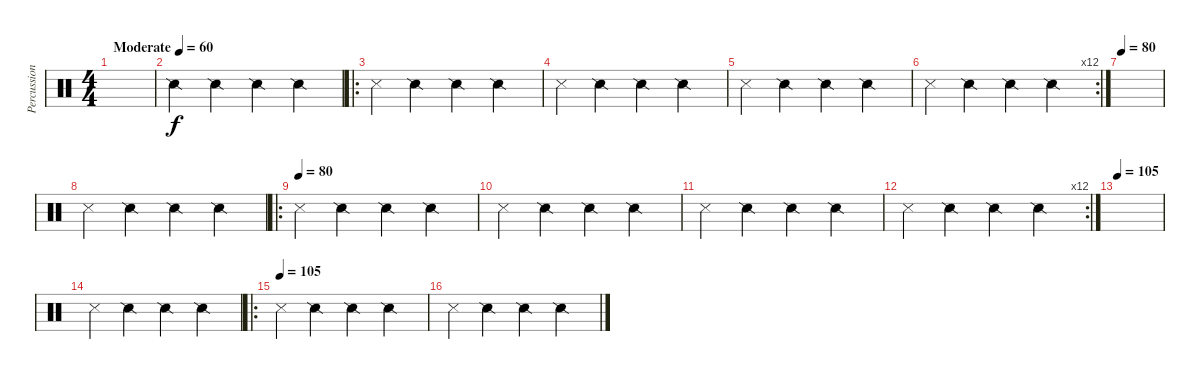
\track ("Percussion" "Percussion") {instrument percussion}
\staff {score}
\articulation defaults
\ts (4 4)
\tempo (60 "Moderate")
\clef neutral
\ks c
|
"Snare (side stick) 2".4 "Snare (side stick) 2".4 "Snare (side stick) 2".4 "Snare (side stick) 2".4 |
\ro "Metronome (hit)".4 "Snare (side stick) 2".4 "Snare (side stick) 2".4 "Snare (side stick) 2".4
|
"Metronome (hit)".4 "Snare (side stick) 2".4 "Snare (side stick) 2".4 "Snare (side stick) 2".4 |
"Metronome (hit)".4 "Snare (side stick) 2".4 "Snare (side stick) 2".4 "Snare (side stick) 2".4 |
\rc 12 "Metronome (hit)".4 "Snare (side stick) 2".4 "Snare (side stick) 2".4 "Snare (side stick) 2".4
|
\tempo 80
|
"Metronome (hit)".4 "Snare (side stick) 2".4 "Snare (side stick) 2".4 "Snare (side stick) 2".4 |
\ro
\tempo (80)
"Metronome (hit)".4 "Snare (side stick) 2".4 "Snare (side stick) 2".4 "Snare (side stick) 2".4 |
"Metronome (hit)".4 "Snare (side stick) 2".4 "Snare (side stick) 2".4 "Snare (side stick) 2".4 |
"Metronome (hit)".4 "Snare (side stick) 2".4 "Snare (side stick) 2".4 "Snare (side stick) 2".4 |
\rc 12 "Metronome (hit)".4 "Snare (side stick) 2".4 "Snare (side stick) 2".4 "Snare (side stick) 2".4
|
\tempo 105
|
"Metronome (hit)".4 "Snare (side stick) 2".4 "Snare (side stick) 2".4 "Snare (side stick) 2".4 |
\ro
\tempo (105)
"Metronome (hit)".4 "Snare (side stick) 2".4 "Snare (side stick) 2".4 "Snare (side stick) 2".4 |
"Metronome (hit)".4 "Snare (side stick) 2".4 "Snare (side stick) 2".4 "Snare (side stick) 2".4
